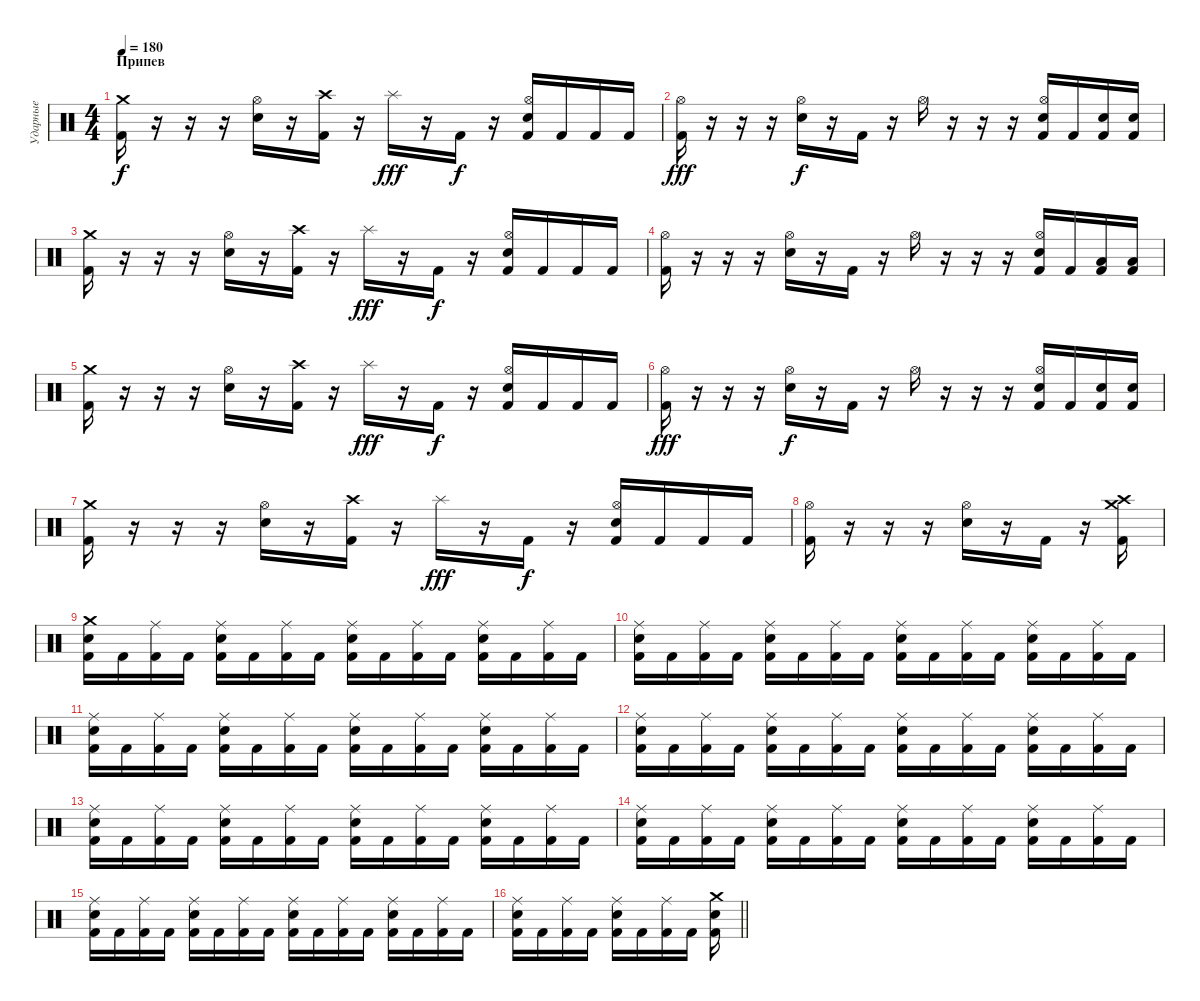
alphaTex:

\track ("Ударные" "Ударные") {instrument percussion}
\staff {score}
\articulation defaults
\ts (4 4)
\section ("" "Припев")
\tempo 180
\clef neutral
\ks c
("Crash medium (hit)" "Kick (hit) 2").16{dy f} r.16 r.16 r.16 ("Hi-Hat (open)" "Snare (hit) 2").16 r.16 ("Crash high (hit)" "Kick (hit) 2").16 r.16 "Splash (hit)".16{dy fff} r.16 "Kick (hit) 2".16{dy f} r.16 ("Hi-Hat (open)" "Snare (hit) 2" "Kick (hit) 2").16 "Kick (hit) 2".16 "Kick (hit) 2".16 "Kick (hit) 2".16 |
("Hi-Hat (open)" "Kick (hit) 2").16{dy fff} r.16 r.16 r.16 ("Hi-Hat (open)" "Snare (hit) 2").16{dy f} r.16 "Kick (hit) 2".16 r.16 "Hi-Hat (open)".16 r.16 r.16 r.16 ("Hi-Hat (open)" "Snare (hit) 2" "Kick (hit) 2").16 "Kick (hit) 2".16 ("Snare (hit) 2" "Kick (hit) 2").16 ("Snare (hit) 2" "Kick (hit) 2").16 |
("Crash medium (hit)" "Kick (hit) 2").16 r.16 r.16 r.16 ("Hi-Hat (open)" "Snare (hit) 2").16 r.16 ("Crash high (hit)" "Kick (hit) 2").16 r.16 "Splash (hit)".16{dy fff} r.16 "Kick (hit) 2".16{dy f} r.16 ("Hi-Hat (open)" "Snare (hit) 2" "Kick (hit) 2").16 "Kick (hit) 2".16 "Kick (hit) 2".16 "Kick (hit) 2".16 |
("Hi-Hat (open)" "Kick (hit) 2").16 r.16 r.16 r.16 ("Hi-Hat (open)" "Snare (hit) 2").16 r.16 "Kick (hit) 2".16 r.16 "Hi-Hat (open)".16 r.16 r.16 r.16 ("Hi-Hat (open)" "Snare (hit) 2" "Kick (hit) 2").16 "Kick (hit) 2".16 ("Low Tom (hit)" "Kick (hit) 2").16 ("Low Tom (hit)" "Kick (hit) 2").16 |
("Crash medium (hit)" "Kick (hit) 2").16 r.16 r.16 r.16 ("Hi-Hat (open)" "Snare (hit) 2").16 r.16 ("Crash high (hit)" "Kick (hit) 2").16 r.16 "Splash (hit)".16{dy fff} r.16 "Kick (hit) 2".16{dy f} r.16 ("Hi-Hat (open)" "Snare (hit) 2" "Kick (hit) 2").16 "Kick (hit) 2".16 "Kick (hit) 2".16 "Kick (hit) 2".16 |
("Hi-Hat (open)" "Kick (hit) 2").16{dy fff} r.16 r.16 r.16 ("Hi-Hat (open)" "Snare (hit) 2").16{dy f} r.16 "Kick (hit) 2".16 r.16 "Hi-Hat (open)".16 r.16 r.16 r.16 ("Hi-Hat (open)" "Snare (hit) 2" "Kick (hit) 2").16 "Kick (hit) 2".16 ("Snare (hit) 2" "Kick (hit) 2").16 ("Snare (hit) 2" "Kick (hit) 2").16 |
("Crash medium (hit)" "Kick (hit) 2").16 r.16 r.16 r.16 ("Hi-Hat (open)" "Snare (hit) 2").16 r.16 ("Crash high (hit)" "Kick (hit) 2").16 r.16 "Splash (hit)".16{dy fff} r.16 "Kick (hit) 2".16{dy f} r.16 ("Hi-Hat (open)" "Snare (hit) 2" "Kick (hit) 2").16 "Kick (hit) 2".16 "Kick (hit) 2".16 "Kick (hit) 2".16 |
("Hi-Hat (open)" "Kick (hit) 2").16 r.16 r.16 r.16 ("Hi-Hat (open)" "Snare (hit) 2").16 r.16 "Kick (hit) 2".16 r.16 ("Crash medium (hit)" "Crash high (hit)" "Kick (hit) 2").16 |
("Crash medium (hit)" "Snare (hit) 2" "Kick (hit) 2").16 "Kick (hit) 2".16 ("Ride (middle)" "Kick (hit) 2").16 "Kick (hit) 2".16 ("Ride (middle)" "Snare (hit) 2" "Kick (hit) 2").16 "Kick (hit) 2".16 ("Ride (middle)" "Kick (hit) 2").16 "Kick (hit) 2".16 ("Ride (middle)" "Snare (hit) 2" "Kick (hit) 2").16 "Kick (hit) 2".16 ("Ride (middle)" "Kick (hit) 2").16 "Kick (hit) 2".16 ("Ride (middle)" "Snare (hit) 2" "Kick (hit) 2").16 "Kick (hit) 2".16 ("Ride (middle)" "Kick (hit) 2").16 "Kick (hit) 2".16 |
("Ride (middle)" "Snare (hit) 2" "Kick (hit) 2").16 "Kick (hit) 2".16 ("Ride (middle)" "Kick (hit) 2").16 "Kick (hit) 2".16 ("Ride (middle)" "Snare (hit) 2" "Kick (hit) 2").16 "Kick (hit) 2".16 ("Ride (middle)" "Kick (hit) 2").16 "Kick (hit) 2".16 ("Ride (middle)" "Snare (hit) 2" "Kick (hit) 2").16 "Kick (hit) 2".16 ("Ride (middle)" "Kick (hit) 2").16 "Kick (hit) 2".16 ("Ride (middle)" "Snare (hit) 2" "Kick (hit) 2").16 "Kick (hit) 2".16 ("Ride (middle)" "Kick (hit) 2").16 "Kick (hit) 2".16 |
("Ride (middle)" "Snare (hit) 2" "Kick (hit) 2").16 "Kick (hit) 2".16 ("Ride (middle)" "Kick (hit) 2").16 "Kick (hit) 2".16 ("Ride (middle)" "Snare (hit) 2" "Kick (hit) 2").16 "Kick (hit) 2".16 ("Ride (middle)" "Kick (hit) 2").16 "Kick (hit) 2".16 ("Ride (middle)" "Snare (hit) 2" "Kick (hit) 2").16 "Kick (hit) 2".16 ("Ride (middle)" "Kick (hit) 2").16 "Kick (hit) 2".16 ("Ride (middle)" "Snare (hit) 2" "Kick (hit) 2").16 "Kick (hit) 2".16 ("Ride (middle)" "Kick (hit) 2").16 "Kick (hit) 2".16 |
("Ride (middle)" "Snare (hit) 2" "Kick (hit) 2").16 "Kick (hit) 2".16 ("Ride (middle)" "Kick (hit) 2").16 "Kick (hit) 2".16 ("Ride (middle)" "Snare (hit) 2" "Kick (hit) 2").16 "Kick (hit) 2".16 ("Ride (middle)" "Kick (hit) 2").16 "Kick (hit) 2".16 ("Ride (middle)" "Snare (hit) 2" "Kick (hit) 2").16 "Kick (hit) 2".16 ("Ride (middle)" "Kick (hit) 2").16 "Kick (hit) 2".16 ("Ride (middle)" "Snare (hit) 2" "Kick (hit) 2").16 "Kick (hit) 2".16 ("Ride (middle)" "Kick (hit) 2").16 "Kick (hit) 2".16 |
("Ride (middle)" "Snare (hit) 2" "Kick (hit) 2").16 "Kick (hit) 2".16 ("Ride (middle)" "Kick (hit) 2").16 "Kick (hit) 2".16 ("Ride (middle)" "Snare (hit) 2" "Kick (hit) 2").16 "Kick (hit) 2".16 ("Ride (middle)" "Kick (hit) 2").16 "Kick (hit) 2".16 ("Ride (middle)" "Snare (hit) 2" "Kick (hit) 2").16 "Kick (hit) 2".16 ("Ride (middle)" "Kick (hit) 2").16 "Kick (hit) 2".16 ("Ride (middle)" "Snare (hit) 2" "Kick (hit) 2").16 "Kick (hit) 2".16 ("Ride (middle)" "Kick (hit) 2").16 "Kick (hit) 2".16 |
("Ride (middle)" "Snare (hit) 2" "Kick (hit) 2").16 "Kick (hit) 2".16 ("Ride (middle)" "Kick (hit) 2").16 "Kick (hit) 2".16 ("Ride (middle)" "Snare (hit) 2" "Kick (hit) 2").16 "Kick (hit) 2".16 ("Ride (middle)" "Kick (hit) 2").16 "Kick (hit) 2".16 ("Ride (middle)" "Snare (hit) 2" "Kick (hit) 2").16 "Kick (hit) 2".16 ("Ride (middle)" "Kick (hit) 2").16 "Kick (hit) 2".16 ("Ride (middle)" "Snare (hit) 2" "Kick (hit) 2").16 "Kick (hit) 2".16 ("Ride (middle)" "Kick (hit) 2").16 "Kick (hit) 2".16 |
("Ride (middle)" "Snare (hit) 2" "Kick (hit) 2").16 "Kick (hit) 2".16 ("Ride (middle)" "Kick (hit) 2").16 "Kick (hit) 2".16 ("Ride (middle)" "Snare (hit) 2" "Kick (hit) 2").16 "Kick (hit) 2".16 ("Ride (middle)" "Kick (hit) 2").16 "Kick (hit) 2".16 ("Ride (middle)" "Snare (hit) 2" "Kick (hit) 2").16 "Kick (hit) 2".16 ("Ride (middle)" "Kick (hit) 2").16 "Kick (hit) 2".16 ("Ride (middle)" "Snare (hit) 2" "Kick (hit) 2").16 "Kick (hit) 2".16 ("Ride (middle)" "Kick (hit) 2").16 "Kick (hit) 2".16 |
\barLineRight lightlight
("Ride (middle)" "Snare (hit) 2" "Kick (hit) 2").16 "Kick (hit) 2".16 ("Ride (middle)" "Kick (hit) 2").16 "Kick (hit) 2".16 ("Ride (middle)" "Snare (hit) 2" "Kick (hit) 2").16 "Kick (hit) 2".16 ("Ride (middle)" "Kick (hit) 2").16 "Kick (hit) 2".16 ("Crash medium (hit)" "Snare (hit) 2" "Kick (hit) 2").16
